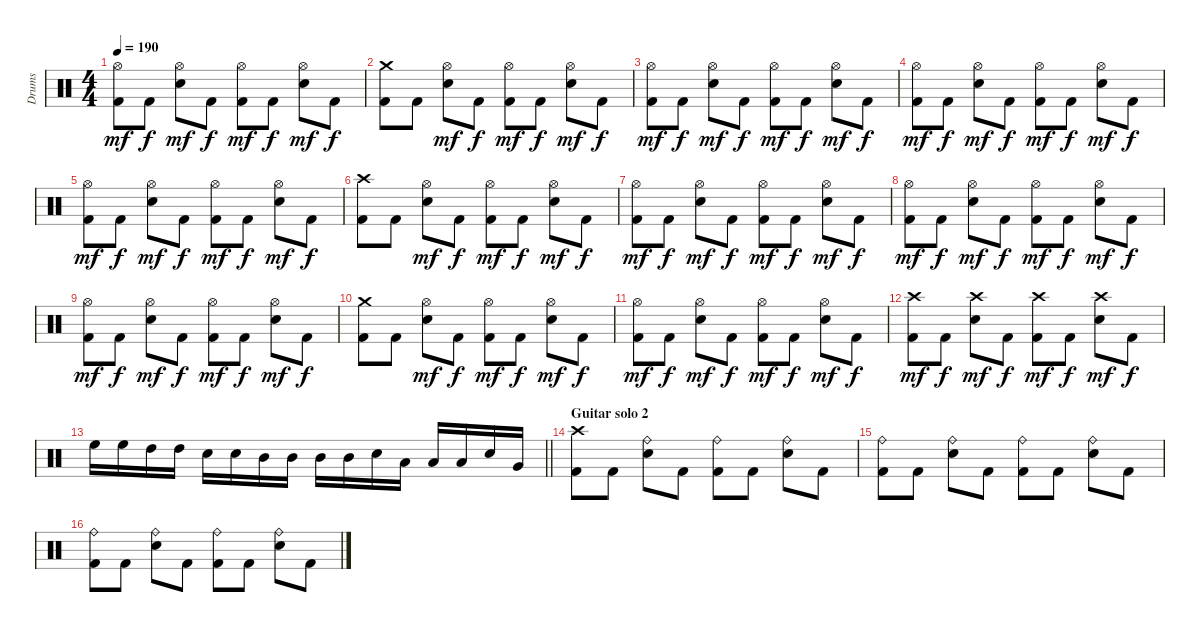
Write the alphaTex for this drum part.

\track ("Drums" "Drums") {instrument percussion}
\staff {score}
\articulation defaults
\ts (4 4)
\tempo 190
\clef neutral
\ks c
("Hi-Hat (open)" "Kick (hit) 2").8{dy mf} "Kick (hit) 2".8{dy f} ("Hi-Hat (open)" "Electric Snare (hit)").8{dy mf} "Kick (hit) 2".8{dy f} ("Hi-Hat (open)" "Kick (hit) 2").8{dy mf} "Kick (hit) 2".8{dy f} ("Hi-Hat (open)" "Electric Snare (hit)").8{dy mf} "Kick (hit) 2".8{dy f} |
("Crash medium (hit)" "Kick (hit) 2").8 "Kick (hit) 2".8 ("Hi-Hat (open)" "Electric Snare (hit)").8{dy mf} "Kick (hit) 2".8{dy f} ("Hi-Hat (open)" "Kick (hit) 2").8{dy mf} "Kick (hit) 2".8{dy f} ("Hi-Hat (open)" "Electric Snare (hit)").8{dy mf} "Kick (hit) 2".8{dy f} |
("Hi-Hat (open)" "Kick (hit) 2").8{dy mf} "Kick (hit) 2".8{dy f} ("Hi-Hat (open)" "Electric Snare (hit)").8{dy mf} "Kick (hit) 2".8{dy f} ("Hi-Hat (open)" "Kick (hit) 2").8{dy mf} "Kick (hit) 2".8{dy f} ("Hi-Hat (open)" "Electric Snare (hit)").8{dy mf} "Kick (hit) 2".8{dy f} |
("Hi-Hat (open)" "Kick (hit) 2").8{dy mf} "Kick (hit) 2".8{dy f} ("Hi-Hat (open)" "Electric Snare (hit)").8{dy mf} "Kick (hit) 2".8{dy f} ("Hi-Hat (open)" "Kick (hit) 2").8{dy mf} "Kick (hit) 2".8{dy f} ("Hi-Hat (open)" "Electric Snare (hit)").8{dy mf} "Kick (hit) 2".8{dy f} |
("Hi-Hat (open)" "Kick (hit) 2").8{dy mf} "Kick (hit) 2".8{dy f} ("Hi-Hat (open)" "Electric Snare (hit)").8{dy mf} "Kick (hit) 2".8{dy f} ("Hi-Hat (open)" "Kick (hit) 2").8{dy mf} "Kick (hit) 2".8{dy f} ("Hi-Hat (open)" "Electric Snare (hit)").8{dy mf} "Kick (hit) 2".8{dy f} |
("Crash high (hit)" "Kick (hit) 2").8 "Kick (hit) 2".8 ("Hi-Hat (open)" "Electric Snare (hit)").8{dy mf} "Kick (hit) 2".8{dy f} ("Hi-Hat (open)" "Kick (hit) 2").8{dy mf} "Kick (hit) 2".8{dy f} ("Hi-Hat (open)" "Electric Snare (hit)").8{dy mf} "Kick (hit) 2".8{dy f} |
("Hi-Hat (open)" "Kick (hit) 2").8{dy mf} "Kick (hit) 2".8{dy f} ("Hi-Hat (open)" "Electric Snare (hit)").8{dy mf} "Kick (hit) 2".8{dy f} ("Hi-Hat (open)" "Kick (hit) 2").8{dy mf} "Kick (hit) 2".8{dy f} ("Hi-Hat (open)" "Electric Snare (hit)").8{dy mf} "Kick (hit) 2".8{dy f} |
("Hi-Hat (open)" "Kick (hit) 2").8{dy mf} "Kick (hit) 2".8{dy f} ("Hi-Hat (open)" "Electric Snare (hit)").8{dy mf} "Kick (hit) 2".8{dy f} ("Hi-Hat (open)" "Kick (hit) 2").8{dy mf} "Kick (hit) 2".8{dy f} ("Hi-Hat (open)" "Electric Snare (hit)").8{dy mf} "Kick (hit) 2".8{dy f} |
("Hi-Hat (open)" "Kick (hit) 2").8{dy mf} "Kick (hit) 2".8{dy f} ("Hi-Hat (open)" "Electric Snare (hit)").8{dy mf} "Kick (hit) 2".8{dy f} ("Hi-Hat (open)" "Kick (hit) 2").8{dy mf} "Kick (hit) 2".8{dy f} ("Hi-Hat (open)" "Electric Snare (hit)").8{dy mf} "Kick (hit) 2".8{dy f} |
("Crash medium (hit)" "Kick (hit) 2").8 "Kick (hit) 2".8 ("Hi-Hat (open)" "Electric Snare (hit)").8{dy mf} "Kick (hit) 2".8{dy f} ("Hi-Hat (open)" "Kick (hit) 2").8{dy mf} "Kick (hit) 2".8{dy f} ("Hi-Hat (open)" "Electric Snare (hit)").8{dy mf} "Kick (hit) 2".8{dy f} |
("Hi-Hat (open)" "Kick (hit) 2").8{dy mf} "Kick (hit) 2".8{dy f} ("Hi-Hat (open)" "Electric Snare (hit)").8{dy mf} "Kick (hit) 2".8{dy f} ("Hi-Hat (open)" "Kick (hit) 2").8{dy mf} "Kick (hit) 2".8{dy f} ("Hi-Hat (open)" "Electric Snare (hit)").8{dy mf} "Kick (hit) 2".8{dy f} |
("Crash high (hit)" "Kick (hit) 2").8{dy mf} "Kick (hit) 2".8{dy f} ("Crash high (hit)" "Electric Snare (hit)").8{dy mf} "Kick (hit) 2".8{dy f} ("Crash high (hit)" "Kick (hit) 2").8{dy mf} "Kick (hit) 2".8{dy f} ("Crash high (hit)" "Electric Snare (hit)").8{dy mf} "Kick (hit) 2".8{dy f} |
\barLineRight lightlight "High Floor Tom (hit)".16 "High Floor Tom (hit)".16 "High Tom (hit)".16 "High Tom (hit)".16 "Electric Snare (hit)".16 "Electric Snare (hit)".16 "Mid Tom (hit)".16 "Mid Tom (hit)".16 "Mid Tom (hit)".16 "Mid Tom (hit)".16 "Electric Snare (hit)".16 "Low Tom (hit)".16 "Low Tom (hit)".16 "Low Tom (hit)".16 "Electric Snare (hit)".16 "Very Low Tom (hit)".16
|
\section ("" "Guitar solo 2")
("Crash high (hit)" "Kick (hit) 2").8 "Kick (hit) 2".8 ("Ride (bell)" "Electric Snare (hit)").8 "Kick (hit) 2".8 ("Ride (bell)" "Kick (hit) 2").8 "Kick (hit) 2".8 ("Ride (bell)" "Electric Snare (hit)").8 "Kick (hit) 2".8 |
("Ride (bell)" "Kick (hit) 2").8 "Kick (hit) 2".8 ("Ride (bell)" "Electric Snare (hit)").8 "Kick (hit) 2".8 ("Ride (bell)" "Kick (hit) 2").8 "Kick (hit) 2".8 ("Ride (bell)" "Electric Snare (hit)").8 "Kick (hit) 2".8 |
("Ride (bell)" "Kick (hit) 2").8 "Kick (hit) 2".8 ("Ride (bell)" "Electric Snare (hit)").8 "Kick (hit) 2".8 ("Ride (bell)" "Kick (hit) 2").8 "Kick (hit) 2".8 ("Ride (bell)" "Electric Snare (hit)").8 "Kick (hit) 2".8
